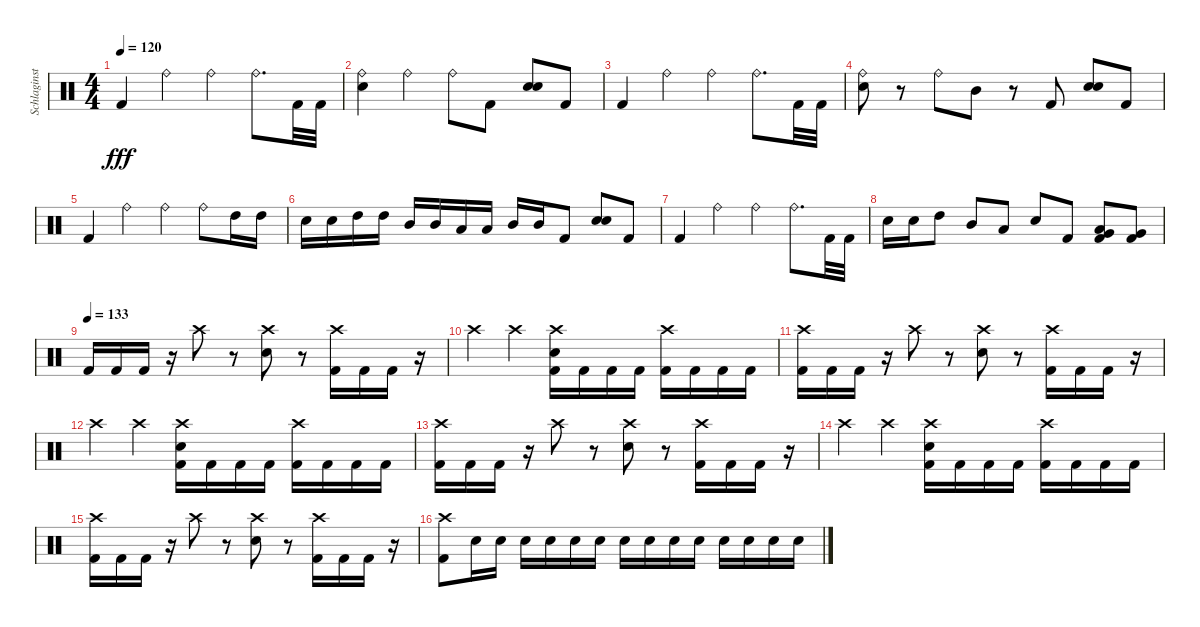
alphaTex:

\track ("Schlaginstrumente - Auswahl" "Schlaginst") {instrument percussion}
\staff {score}
\articulation defaults
\ts (4 4)
\tempo 120
\clef neutral
\ks c "Kick (hit) 2".4{dy fff} "Ride (bell)".4 "Ride (bell)".4 "Ride (bell)".8{d} "Kick (hit) 2".32 "Kick (hit) 2".32
|
("Ride (bell)" "Electric Snare (hit)").4 "Ride (bell)".4 "Ride (bell)".8 "Kick (hit) 2".8 ("Electric Snare (hit)" "Electric Snare (hit)").8 "Kick (hit) 2".8 |
"Kick (hit) 2".4 "Ride (bell)".4 "Ride (bell)".4 "Ride (bell)".8{d} "Kick (hit) 2".32 "Kick (hit) 2".32 |
("Ride (bell)" "Electric Snare (hit)").8 r.8 "Ride (bell)".8 "Mid Tom (hit)".8 r.8 "Kick (hit) 2".8 ("Electric Snare (hit)" "Electric Snare (hit)").8 "Kick (hit) 2".8 |
"Kick (hit) 2".4 "Ride (bell)".4 "Ride (bell)".4 "Ride (bell)".8 "High Tom (hit)".16 "High Tom (hit)".16 |
"Electric Snare (hit)".16 "Electric Snare (hit)".16 "High Tom (hit)".16 "High Tom (hit)".16 "Mid Tom (hit)".16 "Mid Tom (hit)".16 "Low Tom (hit)".16 "Low Tom (hit)".16 "Mid Tom (hit)".16 "Mid Tom (hit)".16 "Kick (hit) 2".8 ("Electric Snare (hit)" "Electric Snare (hit)").8 "Kick (hit) 2".8 |
"Kick (hit) 2".4 "Ride (bell)".4 "Ride (bell)".4 "Ride (bell)".8{d} "Kick (hit) 2".32 "Kick (hit) 2".32 |
"Electric Snare (hit)".16 "Electric Snare (hit)".16 "High Tom (hit)".8 "Mid Tom (hit)".8 "Low Tom (hit)".8 "Electric Snare (hit)".8 "Kick (hit) 2".8 ("Low Tom (hit)" "Very Low Tom (hit)" "Kick (hit) 2").8 ("Very Low Tom (hit)" "Kick (hit) 2").8 |
\tempo (133)
"Kick (hit) 2".16 "Kick (hit) 2".16 "Kick (hit) 2".16 r.16 "Crash high (hit)".8 r.8 ("Crash high (hit)" "Electric Snare (hit)").8 r.8 ("Crash high (hit)" "Kick (hit) 2").16 "Kick (hit) 2".16 "Kick (hit) 2".16 r.16 |
"Crash high (hit)".4 "Crash high (hit)".4 ("Kick (hit) 2" "Crash high (hit)" "Electric Snare (hit)").16 "Kick (hit) 2".16 "Kick (hit) 2".16 "Kick (hit) 2".16 ("Kick (hit) 2" "Crash high (hit)").16 "Kick (hit) 2".16 "Kick (hit) 2".16 "Kick (hit) 2".16 |
("Crash high (hit)" "Kick (hit) 2").16 "Kick (hit) 2".16 "Kick (hit) 2".16 r.16 "Crash high (hit)".8 r.8 ("Crash high (hit)" "Electric Snare (hit)").8 r.8 ("Crash high (hit)" "Kick (hit) 2").16 "Kick (hit) 2".16 "Kick (hit) 2".16 r.16 |
"Crash high (hit)".4 "Crash high (hit)".4 ("Kick (hit) 2" "Crash high (hit)" "Electric Snare (hit)").16 "Kick (hit) 2".16 "Kick (hit) 2".16 "Kick (hit) 2".16 ("Kick (hit) 2" "Crash high (hit)").16 "Kick (hit) 2".16 "Kick (hit) 2".16 "Kick (hit) 2".16 |
("Crash high (hit)" "Kick (hit) 2").16 "Kick (hit) 2".16 "Kick (hit) 2".16 r.16 "Crash high (hit)".8 r.8 ("Crash high (hit)" "Electric Snare (hit)").8 r.8 ("Crash high (hit)" "Kick (hit) 2").16 "Kick (hit) 2".16 "Kick (hit) 2".16 r.16 |
"Crash high (hit)".4 "Crash high (hit)".4 ("Kick (hit) 2" "Crash high (hit)" "Electric Snare (hit)").16 "Kick (hit) 2".16 "Kick (hit) 2".16 "Kick (hit) 2".16 ("Kick (hit) 2" "Crash high (hit)").16 "Kick (hit) 2".16 "Kick (hit) 2".16 "Kick (hit) 2".16 |
("Crash high (hit)" "Kick (hit) 2").16 "Kick (hit) 2".16 "Kick (hit) 2".16 r.16 "Crash high (hit)".8 r.8 ("Crash high (hit)" "Electric Snare (hit)").8 r.8 ("Crash high (hit)" "Kick (hit) 2").16 "Kick (hit) 2".16 "Kick (hit) 2".16 r.16 |
("Crash high (hit)" "Kick (hit) 2").8 "Electric Snare (hit)".16 "Electric Snare (hit)".16 "Electric Snare (hit)".16 "Electric Snare (hit)".16 "Electric Snare (hit)".16 "Electric Snare (hit)".16 "Electric Snare (hit)".16 "Electric Snare (hit)".16 "Electric Snare (hit)".16 "Electric Snare (hit)".16 "Electric Snare (hit)".16 "Electric Snare (hit)".16 "Electric Snare (hit)".16 "Electric Snare (hit)".16
